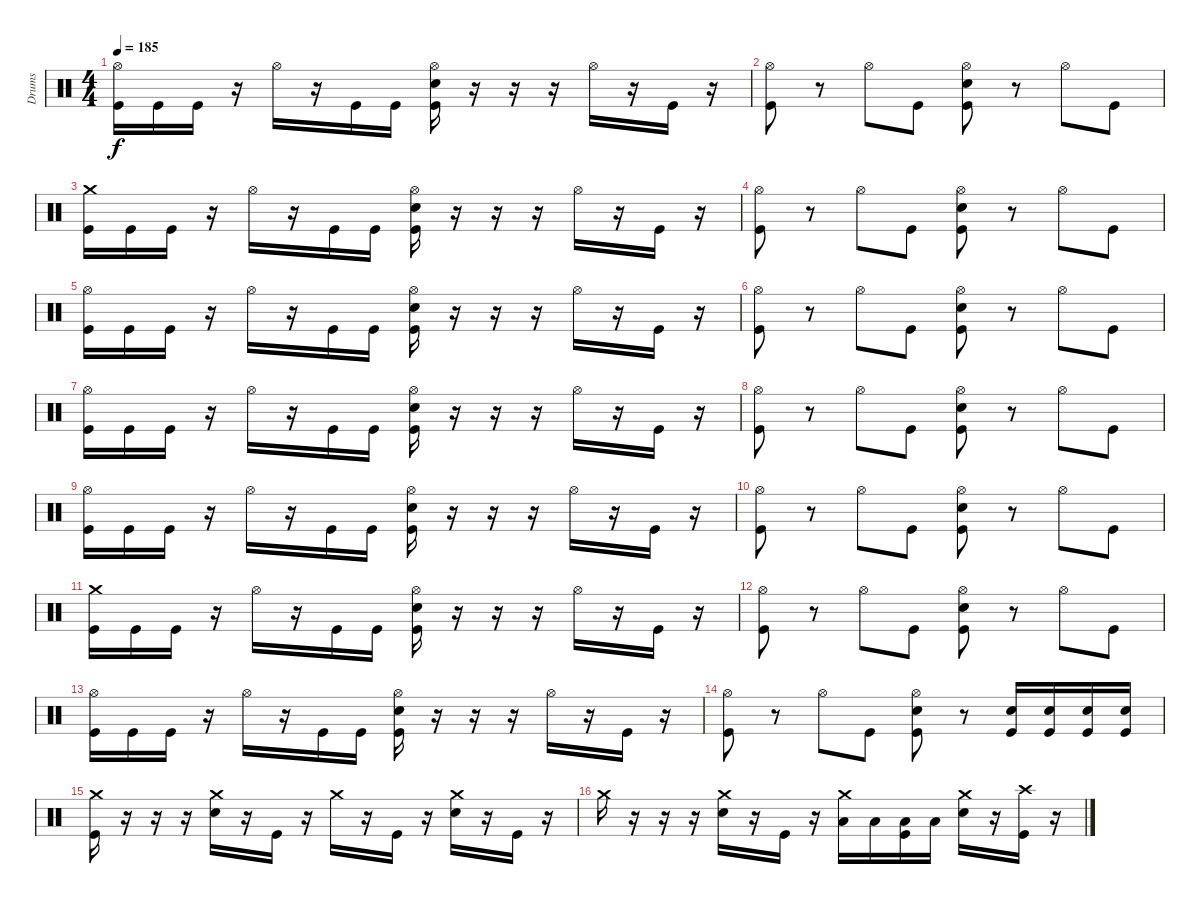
\track ("Drums" "Drums") {instrument percussion}
\staff {score}
\articulation defaults
\ts (4 4)
\tempo 185
\clef neutral
\ks c
("Hi-Hat (open)" "Kick (hit)").16{dy f} "Kick (hit)".16 "Kick (hit)".16 r.16 "Hi-Hat (open)".16 r.16 "Kick (hit)".16 "Kick (hit)".16 ("Hi-Hat (open)" "Snare (hit) 2" "Kick (hit)").16 r.16 r.16 r.16 "Hi-Hat (open)".16 r.16 "Kick (hit)".16 r.16 |
("Hi-Hat (open)" "Kick (hit)").8 r.8 "Hi-Hat (open)".8 "Kick (hit)".8 ("Hi-Hat (open)" "Snare (hit) 2" "Kick (hit)").8 r.8 "Hi-Hat (open)".8 "Kick (hit)".8 |
("Crash medium (hit)" "Kick (hit)").16 "Kick (hit)".16 "Kick (hit)".16 r.16 "Hi-Hat (open)".16 r.16 "Kick (hit)".16 "Kick (hit)".16 ("Hi-Hat (open)" "Snare (hit) 2" "Kick (hit)").16 r.16 r.16 r.16 "Hi-Hat (open)".16 r.16 "Kick (hit)".16 r.16 |
("Hi-Hat (open)" "Kick (hit)").8 r.8 "Hi-Hat (open)".8 "Kick (hit)".8 ("Hi-Hat (open)" "Snare (hit) 2" "Kick (hit)").8 r.8 "Hi-Hat (open)".8 "Kick (hit)".8 |
("Hi-Hat (open)" "Kick (hit)").16 "Kick (hit)".16 "Kick (hit)".16 r.16 "Hi-Hat (open)".16 r.16 "Kick (hit)".16 "Kick (hit)".16 ("Hi-Hat (open)" "Snare (hit) 2" "Kick (hit)").16 r.16 r.16 r.16 "Hi-Hat (open)".16 r.16 "Kick (hit)".16 r.16 |
("Hi-Hat (open)" "Kick (hit)").8 r.8 "Hi-Hat (open)".8 "Kick (hit)".8 ("Hi-Hat (open)" "Snare (hit) 2" "Kick (hit)").8 r.8 "Hi-Hat (open)".8 "Kick (hit)".8 |
("Hi-Hat (open)" "Kick (hit)").16 "Kick (hit)".16 "Kick (hit)".16 r.16 "Hi-Hat (open)".16 r.16 "Kick (hit)".16 "Kick (hit)".16 ("Hi-Hat (open)" "Snare (hit) 2" "Kick (hit)").16 r.16 r.16 r.16 "Hi-Hat (open)".16 r.16 "Kick (hit)".16 r.16 |
("Hi-Hat (open)" "Kick (hit)").8 r.8 "Hi-Hat (open)".8 "Kick (hit)".8 ("Hi-Hat (open)" "Snare (hit) 2" "Kick (hit)").8 r.8 "Hi-Hat (open)".8 "Kick (hit)".8 |
("Hi-Hat (open)" "Kick (hit)").16 "Kick (hit)".16 "Kick (hit)".16 r.16 "Hi-Hat (open)".16 r.16 "Kick (hit)".16 "Kick (hit)".16 ("Hi-Hat (open)" "Snare (hit) 2" "Kick (hit)").16 r.16 r.16 r.16 "Hi-Hat (open)".16 r.16 "Kick (hit)".16 r.16 |
("Hi-Hat (open)" "Kick (hit)").8 r.8 "Hi-Hat (open)".8 "Kick (hit)".8 ("Hi-Hat (open)" "Snare (hit) 2" "Kick (hit)").8 r.8 "Hi-Hat (open)".8 "Kick (hit)".8 |
("Crash medium (hit)" "Kick (hit)").16 "Kick (hit)".16 "Kick (hit)".16 r.16 "Hi-Hat (open)".16 r.16 "Kick (hit)".16 "Kick (hit)".16 ("Hi-Hat (open)" "Snare (hit) 2" "Kick (hit)").16 r.16 r.16 r.16 "Hi-Hat (open)".16 r.16 "Kick (hit)".16 r.16 |
("Hi-Hat (open)" "Kick (hit)").8 r.8 "Hi-Hat (open)".8 "Kick (hit)".8 ("Hi-Hat (open)" "Snare (hit) 2" "Kick (hit)").8 r.8 "Hi-Hat (open)".8 "Kick (hit)".8 |
("Hi-Hat (open)" "Kick (hit)").16 "Kick (hit)".16 "Kick (hit)".16 r.16 "Hi-Hat (open)".16 r.16 "Kick (hit)".16 "Kick (hit)".16 ("Hi-Hat (open)" "Snare (hit) 2" "Kick (hit)").16 r.16 r.16 r.16 "Hi-Hat (open)".16 r.16 "Kick (hit)".16 r.16 |
("Hi-Hat (open)" "Kick (hit)").8 r.8 "Hi-Hat (open)".8 "Kick (hit)".8 ("Hi-Hat (open)" "Snare (hit) 2" "Kick (hit)").8 r.8 ("Snare (hit) 2" "Kick (hit)").16 ("Snare (hit) 2" "Kick (hit)").16 ("Snare (hit) 2" "Kick (hit)").16 ("Snare (hit) 2" "Kick (hit)").16 |
("Crash medium (hit)" "Kick (hit)").16 r.16 r.16 r.16 ("Crash medium (hit)" "Snare (hit) 2").16 r.16 "Kick (hit)".16 r.16 "Crash medium (hit)".16 r.16 "Kick (hit)".16 r.16 ("Crash medium (hit)" "Snare (hit) 2").16 r.16 "Kick (hit)".16 r.16 |
"Crash medium (hit)".16 r.16 r.16 r.16 ("Crash medium (hit)" "Snare (hit) 2").16 r.16 "Kick (hit)".16 r.16 ("Crash medium (hit)" "Low Floor Tom (hit)").16 "Low Floor Tom (hit)".16 ("Low Floor Tom (hit)" "Kick (hit)").16 "Low Floor Tom (hit)".16 ("Crash medium (hit)" "Snare (hit) 2").16 r.16 ("Crash high (hit)" "Kick (hit)").16 r.16
